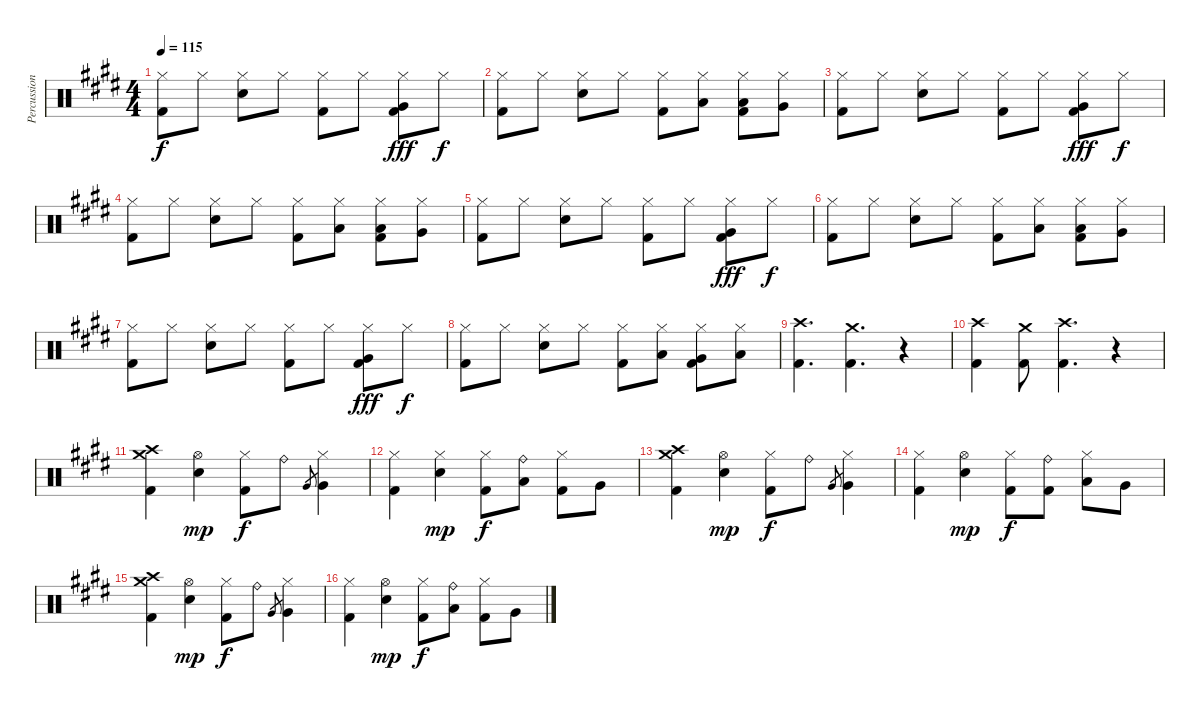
\track ("Percussion" "Percussion") {instrument percussion}
\staff {score}
\articulation defaults
\ts (4 4)
\tempo 115
\clef neutral
\ks c#minor
("Hi-Hat (closed)" "Kick (hit) 2").8{dy f} "Hi-Hat (closed)".8 ("Hi-Hat (closed)" "Electric Snare (hit)").8 "Hi-Hat (closed)".8 ("Hi-Hat (closed)" "Kick (hit) 2").8 "Hi-Hat (closed)".8 ("Hi-Hat (closed)" "Very Low Tom (hit)" "Kick (hit) 2").8{dy fff} "Hi-Hat (closed)".8{dy f} |
("Hi-Hat (closed)" "Kick (hit) 2").8 "Hi-Hat (closed)".8 ("Hi-Hat (closed)" "Electric Snare (hit)").8 "Hi-Hat (closed)".8 ("Hi-Hat (closed)" "Kick (hit) 2").8 ("Hi-Hat (closed)" "Low Tom (hit)").8 ("Hi-Hat (closed)" "Low Floor Tom (hit)" "Kick (hit) 2").8 ("Hi-Hat (closed)" "Very Low Tom (hit)").8 |
("Hi-Hat (closed)" "Kick (hit) 2").8 "Hi-Hat (closed)".8 ("Hi-Hat (closed)" "Electric Snare (hit)").8 "Hi-Hat (closed)".8 ("Hi-Hat (closed)" "Kick (hit) 2").8 "Hi-Hat (closed)".8 ("Hi-Hat (closed)" "Very Low Tom (hit)" "Kick (hit) 2").8{dy fff} "Hi-Hat (closed)".8{dy f} |
("Hi-Hat (closed)" "Kick (hit) 2").8 "Hi-Hat (closed)".8 ("Hi-Hat (closed)" "Electric Snare (hit)").8 "Hi-Hat (closed)".8 ("Hi-Hat (closed)" "Kick (hit) 2").8 ("Hi-Hat (closed)" "Low Tom (hit)").8 ("Hi-Hat (closed)" "Low Floor Tom (hit)" "Kick (hit) 2").8 ("Hi-Hat (closed)" "Very Low Tom (hit)").8 |
("Hi-Hat (closed)" "Kick (hit) 2").8 "Hi-Hat (closed)".8 ("Hi-Hat (closed)" "Electric Snare (hit)").8 "Hi-Hat (closed)".8 ("Hi-Hat (closed)" "Kick (hit) 2").8 "Hi-Hat (closed)".8 ("Hi-Hat (closed)" "Very Low Tom (hit)" "Kick (hit) 2").8{dy fff} "Hi-Hat (closed)".8{dy f} |
("Hi-Hat (closed)" "Kick (hit) 2").8 "Hi-Hat (closed)".8 ("Hi-Hat (closed)" "Electric Snare (hit)").8 "Hi-Hat (closed)".8 ("Hi-Hat (closed)" "Kick (hit) 2").8 ("Hi-Hat (closed)" "Low Tom (hit)").8 ("Hi-Hat (closed)" "Low Floor Tom (hit)" "Kick (hit) 2").8 ("Hi-Hat (closed)" "Very Low Tom (hit)").8 |
("Hi-Hat (closed)" "Kick (hit) 2").8 "Hi-Hat (closed)".8 ("Hi-Hat (closed)" "Electric Snare (hit)").8 "Hi-Hat (closed)".8 ("Hi-Hat (closed)" "Kick (hit) 2").8 "Hi-Hat (closed)".8 ("Hi-Hat (closed)" "Very Low Tom (hit)" "Kick (hit) 2").8{dy fff} "Hi-Hat (closed)".8{dy f} |
("Hi-Hat (closed)" "Kick (hit) 2").8 "Hi-Hat (closed)".8 ("Hi-Hat (closed)" "Electric Snare (hit)").8 "Hi-Hat (closed)".8 ("Hi-Hat (closed)" "Kick (hit) 2").8 ("Hi-Hat (closed)" "Low Tom (hit)").8 ("Hi-Hat (closed)" "Very Low Tom (hit)" "Kick (hit) 2").8 ("Hi-Hat (closed)" "Low Floor Tom (hit)").8 |
("Crash high (hit)" "Kick (hit) 2").4{d} ("Crash medium (hit)" "Kick (hit) 2").4{d} r.4 |
("Crash high (hit)" "Kick (hit) 2").4 ("Crash medium (hit)" "Kick (hit) 2").8 ("Crash high (hit)" "Kick (hit) 2").4{d} r.4 |
("Crash high (hit)" "Crash medium (hit)" "Kick (hit) 2").4 ("Hi-Hat (open)" "Electric Snare (hit)").4{dy mp} ("Hi-Hat (closed)" "Kick (hit) 2").8{dy f} "Ride (bell)".8 "Very Low Tom (hit)".8{gr} ("Hi-Hat (closed)" "Very Low Tom (hit)").4 |
("Hi-Hat (closed)" "Kick (hit) 2").4 ("Hi-Hat (closed)" "Electric Snare (hit)").4{dy mp} ("Hi-Hat (closed)" "Kick (hit) 2").8{dy f} ("Ride (bell)" "Low Tom (hit)").8 ("Hi-Hat (closed)" "Kick (hit) 2").8 "Very Low Tom (hit)".8 |
("Crash high (hit)" "Crash medium (hit)" "Kick (hit) 2").4 ("Hi-Hat (open)" "Electric Snare (hit)").4{dy mp} ("Hi-Hat (closed)" "Kick (hit) 2").8{dy f} "Ride (bell)".8 "Very Low Tom (hit)".8{gr} ("Hi-Hat (closed)" "Very Low Tom (hit)").4 |
("Hi-Hat (closed)" "Kick (hit) 2").4 ("Hi-Hat (open)" "Electric Snare (hit)").4{dy mp} ("Hi-Hat (closed)" "Kick (hit) 2").8{dy f} ("Ride (bell)" "Kick (hit) 2").8 ("Hi-Hat (closed)" "Low Tom (hit)").8 "Very Low Tom (hit)".8 |
("Crash high (hit)" "Crash medium (hit)" "Kick (hit) 2").4 ("Hi-Hat (open)" "Electric Snare (hit)").4{dy mp} ("Hi-Hat (closed)" "Kick (hit) 2").8{dy f} "Ride (bell)".8 "Very Low Tom (hit)".8{gr} ("Hi-Hat (closed)" "Very Low Tom (hit)").4 |
("Hi-Hat (closed)" "Kick (hit) 2").4 ("Hi-Hat (open)" "Electric Snare (hit)").4{dy mp} ("Hi-Hat (closed)" "Kick (hit) 2").8{dy f} ("Ride (bell)" "Low Tom (hit)").8 ("Hi-Hat (closed)" "Kick (hit) 2").8 "Very Low Tom (hit)".8
